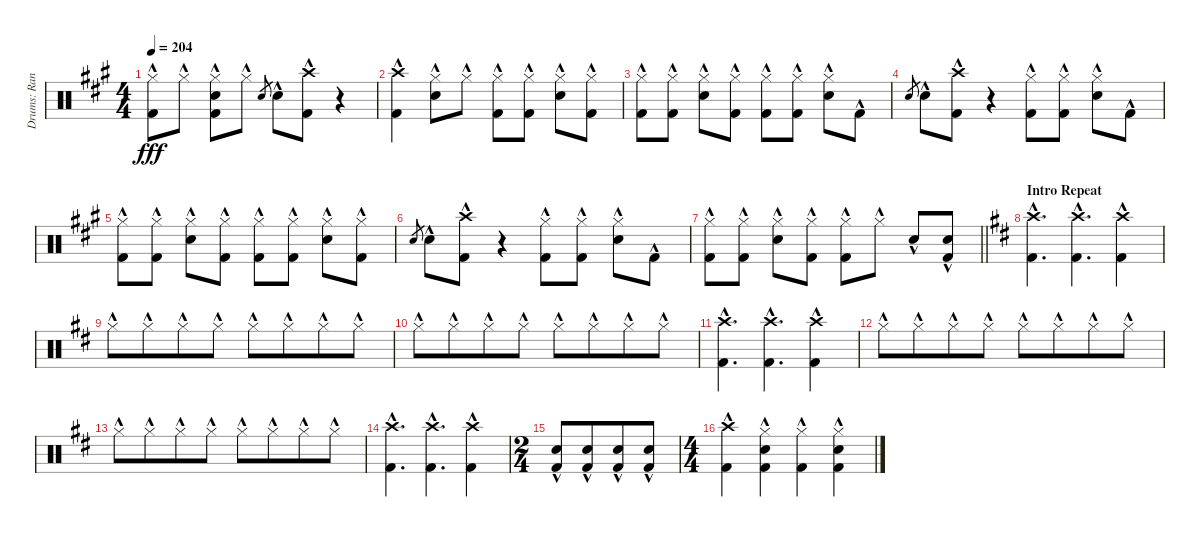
\track ("Drums: Randy" "Drums: Ran") {instrument percussion}
\staff {score}
\articulation defaults
\ts (4 4)
\tempo 204
\clef neutral
\ks a
("Hi-Hat (closed)"{hac} "Kick (hit) 2"{hac}).8{dy fff} "Hi-Hat (closed)"{hac}.8 ("Hi-Hat (closed)"{hac} "Snare (hit) 2"{hac} "Kick (hit) 2"{hac}).8 "Hi-Hat (closed)"{hac}.8 "Snare (hit) 2".8{gr} "Snare (hit) 2"{hac}.8 ("Crash high (hit)"{hac} "Kick (hit) 2"{hac}).8 r.4 |
("Crash high (hit)"{hac} "Kick (hit) 2"{hac}).4 ("Hi-Hat (closed)"{hac} "Snare (hit) 2"{hac}).8 "Hi-Hat (closed)"{hac}.8 ("Hi-Hat (closed)"{hac} "Kick (hit) 2"{hac}).8 ("Hi-Hat (closed)"{hac} "Kick (hit) 2"{hac}).8 ("Hi-Hat (closed)"{hac} "Snare (hit) 2"{hac}).8 ("Hi-Hat (closed)"{hac} "Kick (hit) 2"{hac}).8 |
("Hi-Hat (closed)"{hac} "Kick (hit) 2"{hac}).8 ("Hi-Hat (closed)"{hac} "Kick (hit) 2"{hac}).8 ("Hi-Hat (closed)"{hac} "Snare (hit) 2"{hac}).8 ("Hi-Hat (closed)"{hac} "Kick (hit) 2"{hac}).8 ("Hi-Hat (closed)"{hac} "Kick (hit) 2"{hac}).8 ("Hi-Hat (closed)"{hac} "Kick (hit) 2"{hac}).8 ("Hi-Hat (closed)"{hac} "Snare (hit) 2"{hac}).8 "Kick (hit) 2"{hac}.8 |
"Snare (hit) 2".8{gr} "Snare (hit) 2"{hac}.8 ("Crash high (hit)"{hac} "Kick (hit) 2"{hac}).8 r.4 ("Hi-Hat (closed)"{hac} "Kick (hit) 2"{hac}).8 ("Hi-Hat (closed)"{hac} "Kick (hit) 2"{hac}).8 ("Hi-Hat (closed)"{hac} "Snare (hit) 2"{hac}).8 "Kick (hit) 2"{hac}.8 |
("Hi-Hat (closed)"{hac} "Kick (hit) 2"{hac}).8 ("Hi-Hat (closed)"{hac} "Kick (hit) 2"{hac}).8 ("Hi-Hat (closed)"{hac} "Snare (hit) 2"{hac}).8 ("Hi-Hat (closed)"{hac} "Kick (hit) 2"{hac}).8 ("Hi-Hat (closed)"{hac} "Kick (hit) 2"{hac}).8 ("Hi-Hat (closed)"{hac} "Kick (hit) 2"{hac}).8 ("Hi-Hat (closed)"{hac} "Snare (hit) 2"{hac}).8 ("Hi-Hat (closed)"{hac} "Kick (hit) 2"{hac}).8 |
"Snare (hit) 2".8{gr} "Snare (hit) 2"{hac}.8 ("Crash high (hit)"{hac} "Kick (hit) 2"{hac}).8 r.4 ("Hi-Hat (closed)"{hac} "Kick (hit) 2"{hac}).8 ("Hi-Hat (closed)"{hac} "Kick (hit) 2"{hac}).8 ("Hi-Hat (closed)"{hac} "Snare (hit) 2"{hac}).8 "Kick (hit) 2"{hac}.8 |
\barLineRight lightlight
("Hi-Hat (closed)"{hac} "Kick (hit) 2"{hac}).8 ("Hi-Hat (closed)"{hac} "Kick (hit) 2"{hac}).8 ("Hi-Hat (closed)"{hac} "Snare (hit) 2"{hac}).8 ("Hi-Hat (closed)"{hac} "Kick (hit) 2"{hac}).8 ("Hi-Hat (closed)"{hac} "Kick (hit) 2"{hac}).8 "Hi-Hat (closed)"{hac}.8 "Snare (hit) 2"{hac}.8 ("Snare (hit) 2"{hac} "Kick (hit) 2"{hac}).8 |
\section ("" "Intro Repeat")
\ks d
("Crash high (hit)"{hac} "Kick (hit) 2"{hac}).4{d} ("Crash high (hit)"{hac} "Kick (hit) 2"{hac}).4{d} ("Crash high (hit)"{hac} "Kick (hit) 2"{hac}).4 |
"Hi-Hat (closed)"{hac}.8 "Hi-Hat (closed)"{hac}.8{beam merge} "Hi-Hat (closed)"{hac}.8 "Hi-Hat (closed)"{hac}.8 "Hi-Hat (closed)"{hac}.8 "Hi-Hat (closed)"{hac}.8{beam merge} "Hi-Hat (closed)"{hac}.8 "Hi-Hat (closed)"{hac}.8 |
"Hi-Hat (closed)"{hac}.8 "Hi-Hat (closed)"{hac}.8{beam merge} "Hi-Hat (closed)"{hac}.8 "Hi-Hat (closed)"{hac}.8 "Hi-Hat (closed)"{hac}.8 "Hi-Hat (closed)"{hac}.8{beam merge} "Hi-Hat (closed)"{hac}.8 "Hi-Hat (closed)"{hac}.8 |
("Crash high (hit)"{hac} "Kick (hit) 2"{hac}).4{d} ("Crash high (hit)"{hac} "Kick (hit) 2"{hac}).4{d} ("Crash high (hit)"{hac} "Kick (hit) 2"{hac}).4 |
"Hi-Hat (closed)"{hac}.8 "Hi-Hat (closed)"{hac}.8{beam merge} "Hi-Hat (closed)"{hac}.8 "Hi-Hat (closed)"{hac}.8 "Hi-Hat (closed)"{hac}.8 "Hi-Hat (closed)"{hac}.8{beam merge} "Hi-Hat (closed)"{hac}.8 "Hi-Hat (closed)"{hac}.8 |
"Hi-Hat (closed)"{hac}.8 "Hi-Hat (closed)"{hac}.8{beam merge} "Hi-Hat (closed)"{hac}.8 "Hi-Hat (closed)"{hac}.8 "Hi-Hat (closed)"{hac}.8 "Hi-Hat (closed)"{hac}.8{beam merge} "Hi-Hat (closed)"{hac}.8 "Hi-Hat (closed)"{hac}.8 |
("Crash high (hit)"{hac} "Kick (hit) 2"{hac}).4{d} ("Crash high (hit)"{hac} "Kick (hit) 2"{hac}).4{d} ("Crash high (hit)"{hac} "Kick (hit) 2"{hac}).4 |
\ts (2 4)
("Snare (hit) 2"{hac} "Kick (hit) 2"{hac}).8{beam merge} ("Snare (hit) 2"{hac} "Kick (hit) 2"{hac}).8{beam merge} ("Snare (hit) 2"{hac} "Kick (hit) 2"{hac}).8{beam merge} ("Snare (hit) 2"{hac} "Kick (hit) 2"{hac}).8 |
\ts (4 4)
("Crash high (hit)"{hac} "Kick (hit) 2"{hac}).4 ("Hi-Hat (closed)"{hac} "Snare (hit) 2"{hac} "Kick (hit) 2"{hac}).4 ("Hi-Hat (closed)"{hac} "Kick (hit) 2"{hac}).4 ("Hi-Hat (closed)"{hac} "Snare (hit) 2"{hac} "Kick (hit) 2"{hac}).4
